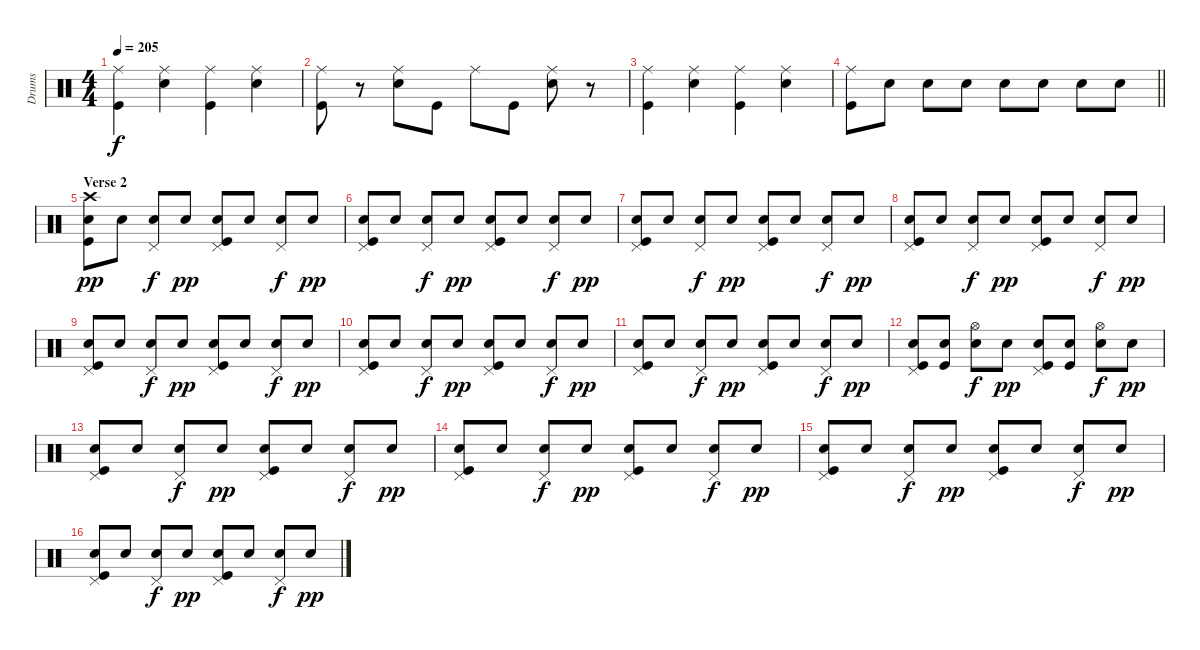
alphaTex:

\track ("Drums" "Drums") {instrument percussion}
\staff {score}
\articulation defaults
\ts (4 4)
\tempo 205
\clef neutral
\ks c
("Ride (middle)" "Kick (hit)").4{dy f} ("Ride (middle)" "Electric Snare (hit)").4 ("Ride (middle)" "Kick (hit)").4 ("Ride (middle)" "Electric Snare (hit)").4 |
("Ride (middle)" "Kick (hit)").8 r.8 ("Ride (middle)" "Electric Snare (hit)").8 "Kick (hit)".8 "Ride (middle)".8 "Kick (hit)".8 ("Ride (middle)" "Electric Snare (hit)").8 r.8 |
("Ride (middle)" "Kick (hit)").4 ("Ride (middle)" "Electric Snare (hit)").4 ("Ride (middle)" "Kick (hit)").4 ("Ride (middle)" "Electric Snare (hit)").4 |
\barLineRight lightlight
("Ride (middle)" "Kick (hit)").8 "Electric Snare (hit)".8 "Electric Snare (hit)".8 "Electric Snare (hit)".8 "Electric Snare (hit)".8 "Electric Snare (hit)".8 "Electric Snare (hit)".8 "Electric Snare (hit)".8 |
\section ("" "Verse 2")
("Crash high (hit)" "Electric Snare (hit)" "Kick (hit)").8{dy pp} "Electric Snare (hit)".8 ("Pedal Hi-Hat (hit)" "Electric Snare (hit)").8{dy f} "Electric Snare (hit)".8{dy pp} ("Pedal Hi-Hat (hit)" "Electric Snare (hit)" "Kick (hit)").8 "Electric Snare (hit)".8 ("Pedal Hi-Hat (hit)" "Electric Snare (hit)").8{dy f} "Electric Snare (hit)".8{dy pp} |
("Pedal Hi-Hat (hit)" "Electric Snare (hit)" "Kick (hit)").8 "Electric Snare (hit)".8 ("Pedal Hi-Hat (hit)" "Electric Snare (hit)").8{dy f} "Electric Snare (hit)".8{dy pp} ("Pedal Hi-Hat (hit)" "Electric Snare (hit)" "Kick (hit)").8 "Electric Snare (hit)".8 ("Pedal Hi-Hat (hit)" "Electric Snare (hit)").8{dy f} "Electric Snare (hit)".8{dy pp} |
("Pedal Hi-Hat (hit)" "Electric Snare (hit)" "Kick (hit)").8 "Electric Snare (hit)".8 ("Pedal Hi-Hat (hit)" "Electric Snare (hit)").8{dy f} "Electric Snare (hit)".8{dy pp} ("Pedal Hi-Hat (hit)" "Electric Snare (hit)" "Kick (hit)").8 "Electric Snare (hit)".8 ("Pedal Hi-Hat (hit)" "Electric Snare (hit)").8{dy f} "Electric Snare (hit)".8{dy pp} |
("Pedal Hi-Hat (hit)" "Electric Snare (hit)" "Kick (hit)").8 "Electric Snare (hit)".8 ("Pedal Hi-Hat (hit)" "Electric Snare (hit)").8{dy f} "Electric Snare (hit)".8{dy pp} ("Pedal Hi-Hat (hit)" "Electric Snare (hit)" "Kick (hit)").8 "Electric Snare (hit)".8 ("Pedal Hi-Hat (hit)" "Electric Snare (hit)").8{dy f} "Electric Snare (hit)".8{dy pp} |
("Pedal Hi-Hat (hit)" "Electric Snare (hit)" "Kick (hit)").8 "Electric Snare (hit)".8 ("Pedal Hi-Hat (hit)" "Electric Snare (hit)").8{dy f} "Electric Snare (hit)".8{dy pp} ("Pedal Hi-Hat (hit)" "Electric Snare (hit)" "Kick (hit)").8 "Electric Snare (hit)".8 ("Pedal Hi-Hat (hit)" "Electric Snare (hit)").8{dy f} "Electric Snare (hit)".8{dy pp} |
("Pedal Hi-Hat (hit)" "Electric Snare (hit)" "Kick (hit)").8 "Electric Snare (hit)".8 ("Pedal Hi-Hat (hit)" "Electric Snare (hit)").8{dy f} "Electric Snare (hit)".8{dy pp} ("Pedal Hi-Hat (hit)" "Electric Snare (hit)" "Kick (hit)").8 "Electric Snare (hit)".8 ("Pedal Hi-Hat (hit)" "Electric Snare (hit)").8{dy f} "Electric Snare (hit)".8{dy pp} |
("Pedal Hi-Hat (hit)" "Electric Snare (hit)" "Kick (hit)").8 "Electric Snare (hit)".8 ("Pedal Hi-Hat (hit)" "Electric Snare (hit)").8{dy f} "Electric Snare (hit)".8{dy pp} ("Pedal Hi-Hat (hit)" "Electric Snare (hit)" "Kick (hit)").8 "Electric Snare (hit)".8 ("Pedal Hi-Hat (hit)" "Electric Snare (hit)").8{dy f} "Electric Snare (hit)".8{dy pp} |
("Pedal Hi-Hat (hit)" "Electric Snare (hit)" "Kick (hit)").8 ("Electric Snare (hit)" "Kick (hit)").8 ("Hi-Hat (open)" "Electric Snare (hit)").8{dy f} "Electric Snare (hit)".8{dy pp} ("Pedal Hi-Hat (hit)" "Electric Snare (hit)" "Kick (hit)").8 ("Electric Snare (hit)" "Kick (hit)").8 ("Hi-Hat (open)" "Electric Snare (hit)").8{dy f} "Electric Snare (hit)".8{dy pp} |
("Pedal Hi-Hat (hit)" "Electric Snare (hit)" "Kick (hit)").8 "Electric Snare (hit)".8 ("Pedal Hi-Hat (hit)" "Electric Snare (hit)").8{dy f} "Electric Snare (hit)".8{dy pp} ("Pedal Hi-Hat (hit)" "Electric Snare (hit)" "Kick (hit)").8 "Electric Snare (hit)".8 ("Pedal Hi-Hat (hit)" "Electric Snare (hit)").8{dy f} "Electric Snare (hit)".8{dy pp} |
("Pedal Hi-Hat (hit)" "Electric Snare (hit)" "Kick (hit)").8 "Electric Snare (hit)".8 ("Pedal Hi-Hat (hit)" "Electric Snare (hit)").8{dy f} "Electric Snare (hit)".8{dy pp} ("Pedal Hi-Hat (hit)" "Electric Snare (hit)" "Kick (hit)").8 "Electric Snare (hit)".8 ("Pedal Hi-Hat (hit)" "Electric Snare (hit)").8{dy f} "Electric Snare (hit)".8{dy pp} |
("Pedal Hi-Hat (hit)" "Electric Snare (hit)" "Kick (hit)").8 "Electric Snare (hit)".8 ("Pedal Hi-Hat (hit)" "Electric Snare (hit)").8{dy f} "Electric Snare (hit)".8{dy pp} ("Pedal Hi-Hat (hit)" "Electric Snare (hit)" "Kick (hit)").8 "Electric Snare (hit)".8 ("Pedal Hi-Hat (hit)" "Electric Snare (hit)").8{dy f} "Electric Snare (hit)".8{dy pp} |
("Pedal Hi-Hat (hit)" "Electric Snare (hit)" "Kick (hit)").8 "Electric Snare (hit)".8 ("Pedal Hi-Hat (hit)" "Electric Snare (hit)").8{dy f} "Electric Snare (hit)".8{dy pp} ("Pedal Hi-Hat (hit)" "Electric Snare (hit)" "Kick (hit)").8 "Electric Snare (hit)".8 ("Pedal Hi-Hat (hit)" "Electric Snare (hit)").8{dy f} "Electric Snare (hit)".8{dy pp}
